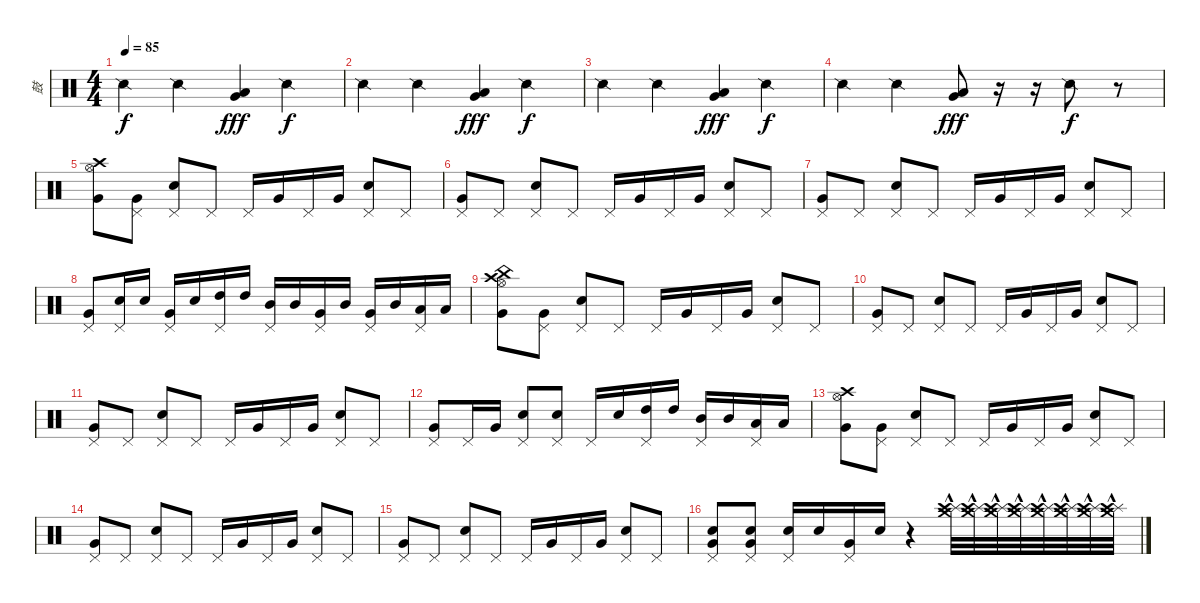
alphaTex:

\track ("鼓" "鼓") {instrument percussion}
\staff {score}
\articulation defaults
\ts (4 4)
\tempo 85
\clef neutral
\ks c "Snare (side stick) 2".4{dy f} "Snare (side stick) 2".4
("Low Floor Tom (hit)" "Very Low Tom (hit)").4{dy fff} "Snare (side stick) 2".4{dy f} |
"Snare (side stick) 2".4 "Snare (side stick) 2".4 ("Low Floor Tom (hit)" "Very Low Tom (hit)").4{dy fff} "Snare (side stick) 2".4{dy f} |
"Snare (side stick) 2".4 "Snare (side stick) 2".4 ("Low Floor Tom (hit)" "Very Low Tom (hit)").4{dy fff} "Snare (side stick) 2".4{dy f} |
"Snare (side stick) 2".4 "Snare (side stick) 2".4 ("Low Floor Tom (hit)" "Very Low Tom (hit)").8{dy fff} r.16 r.16 "Snare (side stick) 2".8{dy f} r.8 |
("Crash high (hit)" "Very Low Tom (hit)" "Hi-Hat (open)").8 ("Very Low Tom (hit)" "Pedal Hi-Hat (hit)").8 ("Snare (hit) 2" "Pedal Hi-Hat (hit)").8 "Pedal Hi-Hat (hit)".8 "Pedal Hi-Hat (hit)".16 "Very Low Tom (hit)".16 "Pedal Hi-Hat (hit)".16 "Very Low Tom (hit)".16 ("Snare (hit) 2" "Pedal Hi-Hat (hit)").8 "Pedal Hi-Hat (hit)".8 |
("Very Low Tom (hit)" "Pedal Hi-Hat (hit)").8 "Pedal Hi-Hat (hit)".8 ("Snare (hit) 2" "Pedal Hi-Hat (hit)").8 "Pedal Hi-Hat (hit)".8 "Pedal Hi-Hat (hit)".16 "Very Low Tom (hit)".16 "Pedal Hi-Hat (hit)".16 "Very Low Tom (hit)".16 ("Snare (hit) 2" "Pedal Hi-Hat (hit)").8 "Pedal Hi-Hat (hit)".8 |
("Very Low Tom (hit)" "Pedal Hi-Hat (hit)").8 "Pedal Hi-Hat (hit)".8 ("Snare (hit) 2" "Pedal Hi-Hat (hit)").8 "Pedal Hi-Hat (hit)".8 "Pedal Hi-Hat (hit)".16 "Very Low Tom (hit)".16 "Pedal Hi-Hat (hit)".16 "Very Low Tom (hit)".16 ("Snare (hit) 2" "Pedal Hi-Hat (hit)").8 "Pedal Hi-Hat (hit)".8 |
("Very Low Tom (hit)" "Pedal Hi-Hat (hit)").8 ("Snare (hit) 2" "Pedal Hi-Hat (hit)").16 "Snare (hit) 2".16 ("Very Low Tom (hit)" "Pedal Hi-Hat (hit)").16 "Snare (hit) 2".16 ("High Tom (hit)" "Pedal Hi-Hat (hit)").16 "High Tom (hit)".16 ("Mid Tom (hit)" "Pedal Hi-Hat (hit)").16 "Mid Tom (hit)".16 ("Very Low Tom (hit)" "Pedal Hi-Hat (hit)").16 "Mid Tom (hit)".16 ("Very Low Tom (hit)" "Pedal Hi-Hat (hit)").16 "Mid Tom (hit)".16 ("Low Tom (hit)" "Pedal Hi-Hat (hit)").16 "Low Tom (hit)".16 |
("Crash high (hit)" "China (hit)" "Very Low Tom (hit)" "Hi-Hat (open)").8 ("Very Low Tom (hit)" "Pedal Hi-Hat (hit)").8 ("Snare (hit) 2" "Pedal Hi-Hat (hit)").8 "Pedal Hi-Hat (hit)".8 "Pedal Hi-Hat (hit)".16 "Very Low Tom (hit)".16 "Pedal Hi-Hat (hit)".16 "Very Low Tom (hit)".16 ("Snare (hit) 2" "Pedal Hi-Hat (hit)").8 "Pedal Hi-Hat (hit)".8 |
("Very Low Tom (hit)" "Pedal Hi-Hat (hit)").8 "Pedal Hi-Hat (hit)".8 ("Snare (hit) 2" "Pedal Hi-Hat (hit)").8 "Pedal Hi-Hat (hit)".8 "Pedal Hi-Hat (hit)".16 "Very Low Tom (hit)".16 "Pedal Hi-Hat (hit)".16 "Very Low Tom (hit)".16 ("Snare (hit) 2" "Pedal Hi-Hat (hit)").8 "Pedal Hi-Hat (hit)".8 |
("Very Low Tom (hit)" "Pedal Hi-Hat (hit)").8 "Pedal Hi-Hat (hit)".8 ("Snare (hit) 2" "Pedal Hi-Hat (hit)").8 "Pedal Hi-Hat (hit)".8 "Pedal Hi-Hat (hit)".16 "Very Low Tom (hit)".16 "Pedal Hi-Hat (hit)".16 "Very Low Tom (hit)".16 ("Snare (hit) 2" "Pedal Hi-Hat (hit)").8 "Pedal Hi-Hat (hit)".8 |
("Very Low Tom (hit)" "Pedal Hi-Hat (hit)").8 "Pedal Hi-Hat (hit)".16 "Very Low Tom (hit)".16 ("Snare (hit) 2" "Pedal Hi-Hat (hit)").8 ("Snare (hit) 2" "Pedal Hi-Hat (hit)").8 "Pedal Hi-Hat (hit)".16 "Snare (hit) 2".16 ("High Tom (hit)" "Pedal Hi-Hat (hit)").16 "High Tom (hit)".16 ("Mid Tom (hit)" "Pedal Hi-Hat (hit)").16 "Mid Tom (hit)".16 ("Low Tom (hit)" "Pedal Hi-Hat (hit)").16 "Low Tom (hit)".16 |
("Crash high (hit)" "Very Low Tom (hit)" "Hi-Hat (open)").8 ("Very Low Tom (hit)" "Pedal Hi-Hat (hit)").8 ("Snare (hit) 2" "Pedal Hi-Hat (hit)").8 "Pedal Hi-Hat (hit)".8 "Pedal Hi-Hat (hit)".16 "Very Low Tom (hit)".16 "Pedal Hi-Hat (hit)".16 "Very Low Tom (hit)".16 ("Snare (hit) 2" "Pedal Hi-Hat (hit)").8 "Pedal Hi-Hat (hit)".8 |
("Very Low Tom (hit)" "Pedal Hi-Hat (hit)").8 "Pedal Hi-Hat (hit)".8 ("Snare (hit) 2" "Pedal Hi-Hat (hit)").8 "Pedal Hi-Hat (hit)".8 "Pedal Hi-Hat (hit)".16 "Very Low Tom (hit)".16 "Pedal Hi-Hat (hit)".16 "Very Low Tom (hit)".16 ("Snare (hit) 2" "Pedal Hi-Hat (hit)").8 "Pedal Hi-Hat (hit)".8 |
("Very Low Tom (hit)" "Pedal Hi-Hat (hit)").8 "Pedal Hi-Hat (hit)".8 ("Snare (hit) 2" "Pedal Hi-Hat (hit)").8 "Pedal Hi-Hat (hit)".8 "Pedal Hi-Hat (hit)".16 "Very Low Tom (hit)".16 "Pedal Hi-Hat (hit)".16 "Very Low Tom (hit)".16 ("Snare (hit) 2" "Pedal Hi-Hat (hit)").8 "Pedal Hi-Hat (hit)".8 |
("Snare (hit) 2" "Very Low Tom (hit)" "Pedal Hi-Hat (hit)").8 ("Snare (hit) 2" "Very Low Tom (hit)" "Pedal Hi-Hat (hit)").8 ("Snare (hit) 2" "Pedal Hi-Hat (hit)").16 "Snare (hit) 2".16 ("Very Low Tom (hit)" "Pedal Hi-Hat (hit)").16 "Snare (hit) 2".16 r.4{volume 3} ("Splash (hit)" "Crash medium (hit)"{hac} "Crash high (hit)"{hac}).32{volume 10} ("Splash (hit)" "Crash medium (hit)"{hac} "Crash high (hit)"{hac}).32 ("Splash (hit)" "Crash medium (hit)"{hac} "Crash high (hit)"{hac}).32 ("Splash (hit)" "Crash medium (hit)"{hac} "Crash high (hit)"{hac}).32 ("Splash (hit)" "Crash medium (hit)"{hac} "Crash high (hit)"{hac}).32 ("Splash (hit)" "Crash medium (hit)"{hac} "Crash high (hit)"{hac}).32 ("Splash (hit)" "Crash medium (hit)"{hac} "Crash high (hit)"{hac}).32 ("Splash (hit)" "Crash medium (hit)" "Crash high (hit)"{hac}).32
